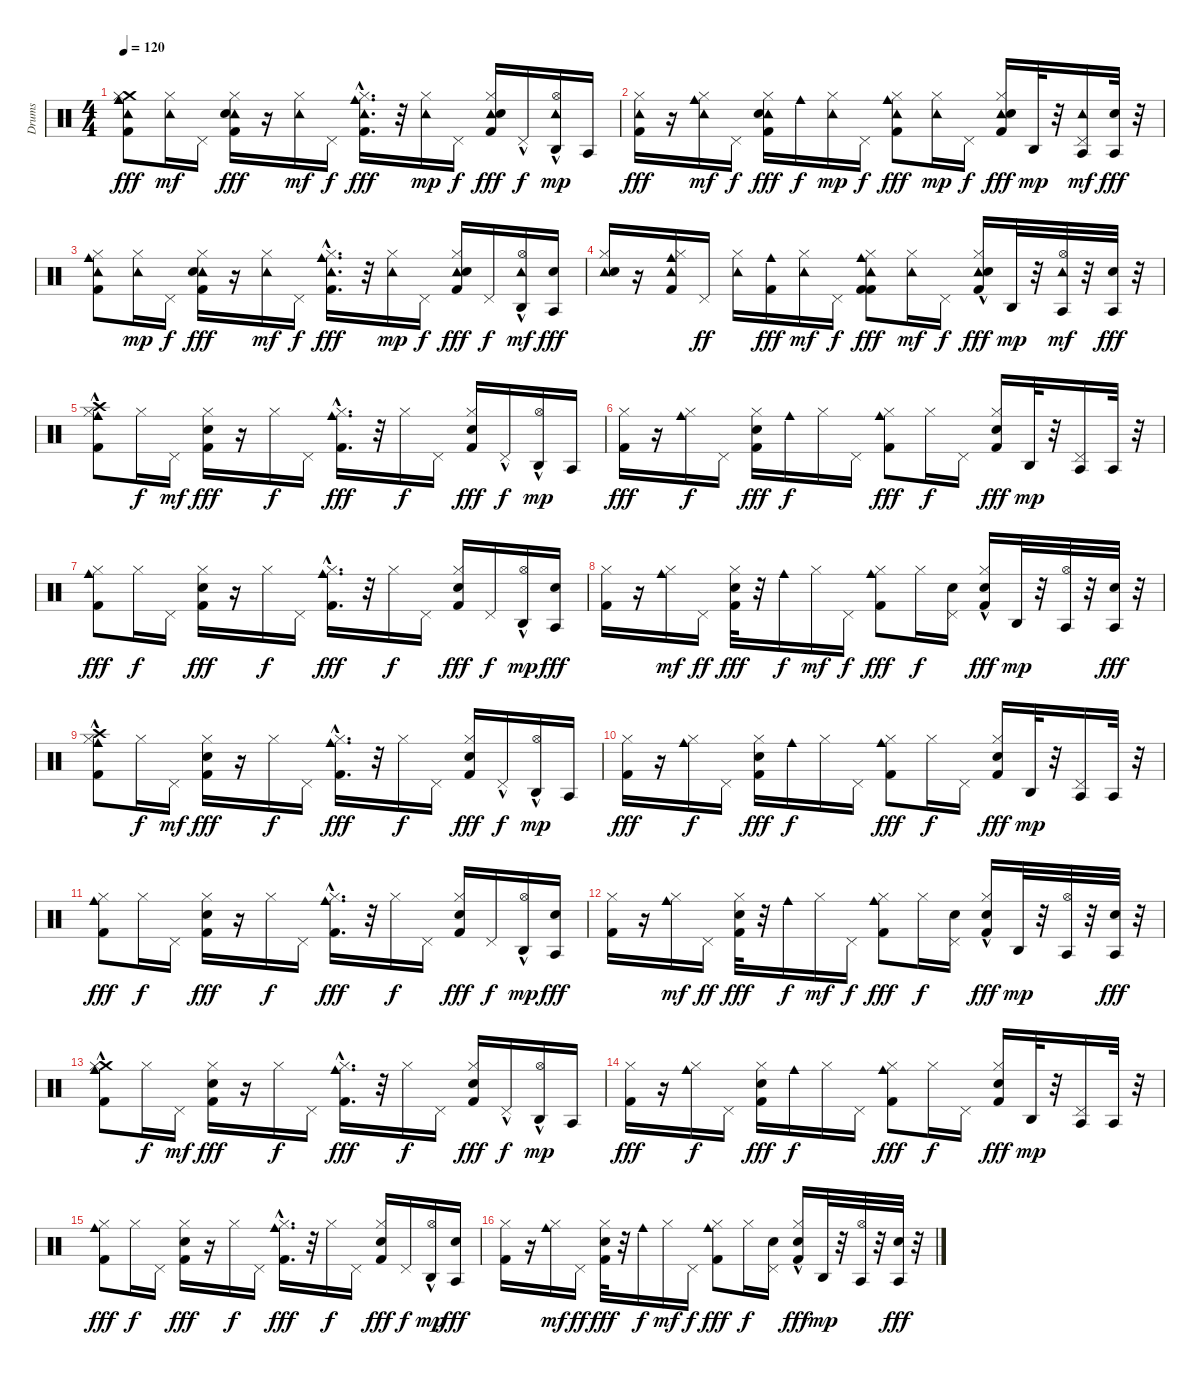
\track ("Drums" "Drums") {instrument percussion}
\staff {score}
\articulation defaults
\ts (4 4)
\tempo 120
\clef neutral
\ks c
("Tambourine (hit)" "Cowbell medium (hit)" "Crash medium (hit)" "Hi-Hat (closed)" "Kick (hit) 2").8{dy fff} ("Tambourine (hit)" "Hi-Hat (closed)").16{dy mf} "Pedal Hi-Hat (hit)".16 ("Tambourine (hit)" "Electric Snare (hit)" "Kick (hit) 2" "Hi-Hat (closed)").16{dy fff} r.16 ("Tambourine (hit)" "Hi-Hat (closed)").16{dy mf} "Pedal Hi-Hat (hit)".16{dy f} ("Tambourine (hit)" "Cowbell medium (hit)"{hac} "Kick (hit) 2" "Hi-Hat (closed)").16{d dy fff} r.32 ("Tambourine (hit)" "Hi-Hat (closed)").16{dy mp} "Pedal Hi-Hat (hit)".16{dy f} ("Tambourine (hit)" "Kick (hit) 2" "Electric Snare (hit)" "Hi-Hat (closed)").16{dy fff} "Pedal Hi-Hat (hit)"{hac}.16{dy f} ("Agogo high (hit)" "Tambourine (hit)" "Hi-Hat (open)"{hac}).16{dy mp} "Agogo tow (hit)".16 |
("Tambourine (hit)" "Kick (hit) 2" "Hi-Hat (closed)").16{dy fff} r.16 ("Cowbell medium (hit)" "Tambourine (hit)" "Hi-Hat (closed)").16{dy mf} "Pedal Hi-Hat (hit)".16{dy f} ("Tambourine (hit)" "Hi-Hat (closed)" "Kick (hit) 2" "Electric Snare (hit)").16{dy fff} "Cowbell medium (hit)".16{dy f} ("Tambourine (hit)" "Hi-Hat (closed)").16{dy mp} "Pedal Hi-Hat (hit)".16{dy f} ("Cowbell medium (hit)" "Tambourine (hit)" "Kick (hit) 2" "Hi-Hat (closed)").8{dy fff} ("Tambourine (hit)" "Hi-Hat (closed)").16{dy mp} "Pedal Hi-Hat (hit)".16{dy f} ("Tambourine (hit)" "Electric Snare (hit)" "Kick (hit) 2" "Hi-Hat (closed)").16{dy fff} "Agogo high (hit)".32{dy mp} r.32 ("Agogo tow (hit)" "Tambourine (hit)" "Pedal Hi-Hat (hit)").16{dy mf} ("Agogo tow (hit)" "Electric Snare (hit)").32{dy fff} r.32 |
("Tambourine (hit)" "Cowbell medium (hit)" "Kick (hit) 2" "Hi-Hat (closed)").8 ("Tambourine (hit)" "Hi-Hat (closed)").16{dy mp} "Pedal Hi-Hat (hit)".16{dy f} ("Tambourine (hit)" "Electric Snare (hit)" "Kick (hit) 2" "Hi-Hat (closed)").16{dy fff} r.16 ("Tambourine (hit)" "Hi-Hat (closed)").16{dy mf} "Pedal Hi-Hat (hit)".16{dy f} ("Tambourine (hit)" "Cowbell medium (hit)"{hac} "Hi-Hat (closed)" "Kick (hit) 2").16{d dy fff} r.32 ("Tambourine (hit)" "Hi-Hat (closed)").16{dy mp} "Pedal Hi-Hat (hit)".16{dy f} ("Tambourine (hit)" "Kick (hit) 2" "Electric Snare (hit)" "Hi-Hat (closed)").16{dy fff} "Pedal Hi-Hat (hit)".16{dy f} ("Agogo high (hit)" "Tambourine (hit)" "Hi-Hat (open)"{hac}).16{dy mf} ("Agogo tow (hit)" "Electric Snare (hit)").16{dy fff} |
("Tambourine (hit)" "Electric Snare (hit)" "Hi-Hat (closed)").16 r.16 ("Tambourine (hit)" "Cowbell medium (hit)" "Hi-Hat (closed)" "Kick (hit) 2").16 "Pedal Hi-Hat (hit)".16{dy ff} ("Tambourine (hit)" "Hi-Hat (closed)").16 ("Cowbell medium (hit)" "Kick (hit) 2").16{dy fff} ("Tambourine (hit)" "Hi-Hat (closed)").16{dy mf} "Pedal Hi-Hat (hit)".16{dy f} ("Tambourine (hit)" "Cowbell medium (hit)" "Kick (hit) 2" "Hi-Hat (closed)" "Kick (hit) 2").8{dy fff} ("Tambourine (hit)" "Hi-Hat (closed)").16{dy mf} "Pedal Hi-Hat (hit)".16{dy f} ("Tambourine (hit)" "Hi-Hat (closed)" "Kick (hit) 2"{hac} "Electric Snare (hit)").16{dy fff} "Agogo high (hit)".32{dy mp} r.32 ("Agogo tow (hit)" "Tambourine (hit)" "Hi-Hat (open)").32{dy mf} r.32 ("Agogo tow (hit)" "Electric Snare (hit)").32{dy fff} r.32 |
("Cowbell medium (hit)" "Crash high (hit)"{hac} "Hi-Hat (closed)" "Kick (hit) 2").8 "Hi-Hat (closed)".16{dy f} "Pedal Hi-Hat (hit)".16{dy mf} ("Electric Snare (hit)" "Kick (hit) 2" "Hi-Hat (closed)").16{dy fff} r.16 "Hi-Hat (closed)".16{dy f} "Pedal Hi-Hat (hit)".16 ("Cowbell medium (hit)"{hac} "Kick (hit) 2" "Hi-Hat (closed)").16{d dy fff} r.32 "Hi-Hat (closed)".16{dy f} "Pedal Hi-Hat (hit)".16 ("Kick (hit) 2" "Electric Snare (hit)" "Hi-Hat (closed)").16{dy fff} "Pedal Hi-Hat (hit)"{hac}.16{dy f} ("Agogo high (hit)" "Hi-Hat (open)"{hac}).16{dy mp} "Agogo tow (hit)".16 |
("Kick (hit) 2" "Hi-Hat (closed)").16{dy fff} r.16 ("Cowbell medium (hit)" "Hi-Hat (closed)").16{dy f} "Pedal Hi-Hat (hit)".16 ("Hi-Hat (closed)" "Kick (hit) 2" "Electric Snare (hit)").16{dy fff} "Cowbell medium (hit)".16{dy f} "Hi-Hat (closed)".16 "Pedal Hi-Hat (hit)".16 ("Cowbell medium (hit)" "Kick (hit) 2" "Hi-Hat (closed)").8{dy fff} "Hi-Hat (closed)".16{dy f} "Pedal Hi-Hat (hit)".16 ("Electric Snare (hit)" "Kick (hit) 2" "Hi-Hat (closed)").16{dy fff} "Agogo high (hit)".32{dy mp} r.32 ("Agogo tow (hit)" "Pedal Hi-Hat (hit)").16 "Agogo tow (hit)".32 r.32 |
("Cowbell medium (hit)" "Kick (hit) 2" "Hi-Hat (closed)").8{dy fff} "Hi-Hat (closed)".16{dy f} "Pedal Hi-Hat (hit)".16 ("Electric Snare (hit)" "Kick (hit) 2" "Hi-Hat (closed)").16{dy fff} r.16 "Hi-Hat (closed)".16{dy f} "Pedal Hi-Hat (hit)".16 ("Cowbell medium (hit)"{hac} "Hi-Hat (closed)" "Kick (hit) 2").16{d dy fff} r.32 "Hi-Hat (closed)".16{dy f} "Pedal Hi-Hat (hit)".16 ("Kick (hit) 2" "Electric Snare (hit)" "Hi-Hat (closed)").16{dy fff} "Pedal Hi-Hat (hit)".16{dy f} ("Agogo high (hit)" "Hi-Hat (open)"{hac}).16{dy mp} ("Agogo tow (hit)" "Electric Snare (hit)").16{dy fff} |
("Kick (hit) 2" "Hi-Hat (closed)").16 r.16 ("Cowbell medium (hit)" "Hi-Hat (closed)").16{dy mf} "Pedal Hi-Hat (hit)".16{dy ff} ("Electric Snare (hit)" "Kick (hit) 2" "Hi-Hat (closed)").32{dy fff} r.32 "Cowbell medium (hit)".16{dy f} "Hi-Hat (closed)".16{dy mf} "Pedal Hi-Hat (hit)".16{dy f} ("Cowbell medium (hit)" "Hi-Hat (closed)" "Kick (hit) 2").8{dy fff} "Hi-Hat (closed)".16{dy f} ("Pedal Hi-Hat (hit)" "Electric Snare (hit)").16 ("Hi-Hat (closed)" "Kick (hit) 2"{hac} "Electric Snare (hit)").16{dy fff} "Agogo high (hit)".32{dy mp} r.32 ("Agogo tow (hit)" "Hi-Hat (open)").32 r.32 ("Agogo tow (hit)" "Electric Snare (hit)").32{dy fff} r.32 |
("Cowbell medium (hit)" "Crash high (hit)"{hac} "Hi-Hat (closed)" "Kick (hit) 2").8 "Hi-Hat (closed)".16{dy f} "Pedal Hi-Hat (hit)".16{dy mf} ("Electric Snare (hit)" "Kick (hit) 2" "Hi-Hat (closed)").16{dy fff} r.16 "Hi-Hat (closed)".16{dy f} "Pedal Hi-Hat (hit)".16 ("Cowbell medium (hit)"{hac} "Kick (hit) 2" "Hi-Hat (closed)").16{d dy fff} r.32 "Hi-Hat (closed)".16{dy f} "Pedal Hi-Hat (hit)".16 ("Kick (hit) 2" "Electric Snare (hit)" "Hi-Hat (closed)").16{dy fff} "Pedal Hi-Hat (hit)"{hac}.16{dy f} ("Agogo high (hit)" "Hi-Hat (open)"{hac}).16{dy mp} "Agogo tow (hit)".16 |
("Kick (hit) 2" "Hi-Hat (closed)").16{dy fff} r.16 ("Cowbell medium (hit)" "Hi-Hat (closed)").16{dy f} "Pedal Hi-Hat (hit)".16 ("Hi-Hat (closed)" "Kick (hit) 2" "Electric Snare (hit)").16{dy fff} "Cowbell medium (hit)".16{dy f} "Hi-Hat (closed)".16 "Pedal Hi-Hat (hit)".16 ("Cowbell medium (hit)" "Kick (hit) 2" "Hi-Hat (closed)").8{dy fff} "Hi-Hat (closed)".16{dy f} "Pedal Hi-Hat (hit)".16 ("Electric Snare (hit)" "Kick (hit) 2" "Hi-Hat (closed)").16{dy fff} "Agogo high (hit)".32{dy mp} r.32 ("Agogo tow (hit)" "Pedal Hi-Hat (hit)").16 "Agogo tow (hit)".32 r.32 |
("Cowbell medium (hit)" "Kick (hit) 2" "Hi-Hat (closed)").8{dy fff} "Hi-Hat (closed)".16{dy f} "Pedal Hi-Hat (hit)".16 ("Electric Snare (hit)" "Kick (hit) 2" "Hi-Hat (closed)").16{dy fff} r.16 "Hi-Hat (closed)".16{dy f} "Pedal Hi-Hat (hit)".16 ("Cowbell medium (hit)"{hac} "Hi-Hat (closed)" "Kick (hit) 2").16{d dy fff} r.32 "Hi-Hat (closed)".16{dy f} "Pedal Hi-Hat (hit)".16 ("Kick (hit) 2" "Electric Snare (hit)" "Hi-Hat (closed)").16{dy fff} "Pedal Hi-Hat (hit)".16{dy f} ("Agogo high (hit)" "Hi-Hat (open)"{hac}).16{dy mp} ("Agogo tow (hit)" "Electric Snare (hit)").16{dy fff} |
("Kick (hit) 2" "Hi-Hat (closed)").16 r.16 ("Cowbell medium (hit)" "Hi-Hat (closed)").16{dy mf} "Pedal Hi-Hat (hit)".16{dy ff} ("Electric Snare (hit)" "Kick (hit) 2" "Hi-Hat (closed)").32{dy fff} r.32 "Cowbell medium (hit)".16{dy f} "Hi-Hat (closed)".16{dy mf} "Pedal Hi-Hat (hit)".16{dy f} ("Cowbell medium (hit)" "Hi-Hat (closed)" "Kick (hit) 2").8{dy fff} "Hi-Hat (closed)".16{dy f} ("Pedal Hi-Hat (hit)" "Electric Snare (hit)").16 ("Hi-Hat (closed)" "Kick (hit) 2"{hac} "Electric Snare (hit)").16{dy fff} "Agogo high (hit)".32{dy mp} r.32 ("Agogo tow (hit)" "Hi-Hat (open)").32 r.32 ("Agogo tow (hit)" "Electric Snare (hit)").32{dy fff} r.32 |
("Cowbell medium (hit)" "Crash medium (hit)"{hac} "Hi-Hat (closed)" "Kick (hit) 2").8 "Hi-Hat (closed)".16{dy f} "Pedal Hi-Hat (hit)".16{dy mf} ("Electric Snare (hit)" "Kick (hit) 2" "Hi-Hat (closed)").16{dy fff} r.16 "Hi-Hat (closed)".16{dy f} "Pedal Hi-Hat (hit)".16 ("Cowbell medium (hit)"{hac} "Kick (hit) 2" "Hi-Hat (closed)").16{d dy fff} r.32 "Hi-Hat (closed)".16{dy f} "Pedal Hi-Hat (hit)".16 ("Kick (hit) 2" "Electric Snare (hit)" "Hi-Hat (closed)").16{dy fff} "Pedal Hi-Hat (hit)"{hac}.16{dy f} ("Agogo high (hit)" "Hi-Hat (open)"{hac}).16{dy mp} "Agogo tow (hit)".16 |
("Kick (hit) 2" "Hi-Hat (closed)").16{dy fff} r.16 ("Cowbell medium (hit)" "Hi-Hat (closed)").16{dy f} "Pedal Hi-Hat (hit)".16 ("Hi-Hat (closed)" "Kick (hit) 2" "Electric Snare (hit)").16{dy fff} "Cowbell medium (hit)".16{dy f} "Hi-Hat (closed)".16 "Pedal Hi-Hat (hit)".16 ("Cowbell medium (hit)" "Kick (hit) 2" "Hi-Hat (closed)").8{dy fff} "Hi-Hat (closed)".16{dy f} "Pedal Hi-Hat (hit)".16 ("Electric Snare (hit)" "Kick (hit) 2" "Hi-Hat (closed)").16{dy fff} "Agogo high (hit)".32{dy mp} r.32 ("Agogo tow (hit)" "Pedal Hi-Hat (hit)").16 "Agogo tow (hit)".32 r.32 |
("Cowbell medium (hit)" "Kick (hit) 2" "Hi-Hat (closed)").8{dy fff} "Hi-Hat (closed)".16{dy f} "Pedal Hi-Hat (hit)".16 ("Electric Snare (hit)" "Kick (hit) 2" "Hi-Hat (closed)").16{dy fff} r.16 "Hi-Hat (closed)".16{dy f} "Pedal Hi-Hat (hit)".16 ("Cowbell medium (hit)"{hac} "Hi-Hat (closed)" "Kick (hit) 2").16{d dy fff} r.32 "Hi-Hat (closed)".16{dy f} "Pedal Hi-Hat (hit)".16 ("Kick (hit) 2" "Electric Snare (hit)" "Hi-Hat (closed)").16{dy fff} "Pedal Hi-Hat (hit)".16{dy f} ("Agogo high (hit)" "Hi-Hat (open)"{hac}).16{dy mp} ("Agogo tow (hit)" "Electric Snare (hit)").16{dy fff} |
("Kick (hit) 2" "Hi-Hat (closed)").16 r.16 ("Cowbell medium (hit)" "Hi-Hat (closed)").16{dy mf} "Pedal Hi-Hat (hit)".16{dy ff} ("Electric Snare (hit)" "Kick (hit) 2" "Hi-Hat (closed)").32{dy fff} r.32 "Cowbell medium (hit)".16{dy f} "Hi-Hat (closed)".16{dy mf} "Pedal Hi-Hat (hit)".16{dy f} ("Cowbell medium (hit)" "Hi-Hat (closed)" "Kick (hit) 2").8{dy fff} "Hi-Hat (closed)".16{dy f} ("Pedal Hi-Hat (hit)" "Electric Snare (hit)").16 ("Hi-Hat (closed)" "Kick (hit) 2"{hac} "Electric Snare (hit)").16{dy fff} "Agogo high (hit)".32{dy mp} r.32 ("Agogo tow (hit)" "Hi-Hat (open)").32 r.32 ("Agogo tow (hit)" "Electric Snare (hit)").32{dy fff} r.32
